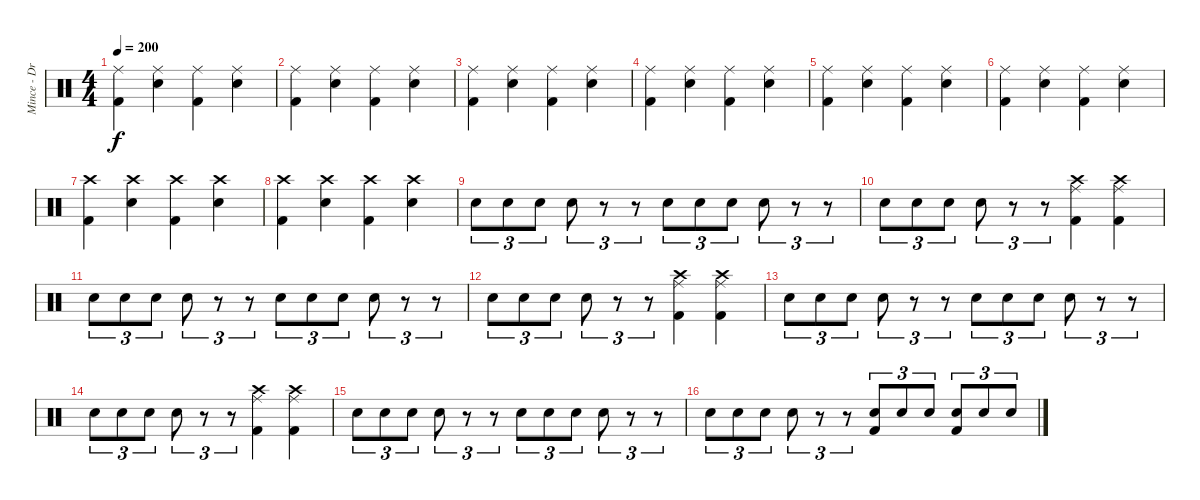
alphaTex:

\track ("Mince - Drums" "Mince - Dr") {instrument percussion}
\staff {score}
\articulation defaults
\ts (4 4)
\tempo 200
\clef neutral
\ks c
("Ride (middle)" "Kick (hit) 2").4{dy f} ("Ride (middle)" "Electric Snare (hit)").4 ("Ride (middle)" "Kick (hit) 2").4 ("Ride (middle)" "Electric Snare (hit)").4 |
("Ride (middle)" "Kick (hit) 2").4 ("Ride (middle)" "Electric Snare (hit)").4 ("Ride (middle)" "Kick (hit) 2").4 ("Ride (middle)" "Electric Snare (hit)").4 |
("Ride (middle)" "Kick (hit) 2").4 ("Ride (middle)" "Electric Snare (hit)").4 ("Ride (middle)" "Kick (hit) 2").4 ("Ride (middle)" "Electric Snare (hit)").4 |
("Ride (middle)" "Kick (hit) 2").4 ("Ride (middle)" "Electric Snare (hit)").4 ("Ride (middle)" "Kick (hit) 2").4 ("Ride (middle)" "Electric Snare (hit)").4 |
("Ride (middle)" "Kick (hit) 2").4 ("Ride (middle)" "Electric Snare (hit)").4 ("Ride (middle)" "Kick (hit) 2").4 ("Ride (middle)" "Electric Snare (hit)").4 |
("Ride (middle)" "Kick (hit) 2").4 ("Ride (middle)" "Electric Snare (hit)").4 ("Ride (middle)" "Kick (hit) 2").4 ("Ride (middle)" "Electric Snare (hit)").4 |
("Crash high (hit)" "Kick (hit) 2").4 ("Crash high (hit)" "Electric Snare (hit)").4 ("Crash high (hit)" "Kick (hit) 2").4 ("Crash high (hit)" "Electric Snare (hit)").4 |
("Crash high (hit)" "Kick (hit) 2").4 ("Crash high (hit)" "Electric Snare (hit)").4 ("Crash high (hit)" "Kick (hit) 2").4 ("Crash high (hit)" "Electric Snare (hit)").4 |
"Electric Snare (hit)".8{tu (3 2)} "Electric Snare (hit)".8{tu (3 2)} "Electric Snare (hit)".8{tu (3 2)} "Electric Snare (hit)".8{tu (3 2)} r.8{tu (3 2)} r.8{tu (3 2)} "Electric Snare (hit)".8{tu (3 2)} "Electric Snare (hit)".8{tu (3 2)} "Electric Snare (hit)".8{tu (3 2)} "Electric Snare (hit)".8{tu (3 2)} r.8{tu (3 2)} r.8{tu (3 2)} |
"Electric Snare (hit)".8{tu (3 2)} "Electric Snare (hit)".8{tu (3 2)} "Electric Snare (hit)".8{tu (3 2)} "Electric Snare (hit)".8{tu (3 2)} r.8{tu (3 2)} r.8{tu (3 2)} ("Crash high (hit)" "Ride (middle)" "Kick (hit) 2").4 ("Crash high (hit)" "Ride (middle)" "Kick (hit) 2").4 |
"Electric Snare (hit)".8{tu (3 2)} "Electric Snare (hit)".8{tu (3 2)} "Electric Snare (hit)".8{tu (3 2)} "Electric Snare (hit)".8{tu (3 2)} r.8{tu (3 2)} r.8{tu (3 2)} "Electric Snare (hit)".8{tu (3 2)} "Electric Snare (hit)".8{tu (3 2)} "Electric Snare (hit)".8{tu (3 2)} "Electric Snare (hit)".8{tu (3 2)} r.8{tu (3 2)} r.8{tu (3 2)} |
"Electric Snare (hit)".8{tu (3 2)} "Electric Snare (hit)".8{tu (3 2)} "Electric Snare (hit)".8{tu (3 2)} "Electric Snare (hit)".8{tu (3 2)} r.8{tu (3 2)} r.8{tu (3 2)} ("Crash high (hit)" "Ride (middle)" "Kick (hit) 2").4 ("Crash high (hit)" "Ride (middle)" "Kick (hit) 2").4 |
"Electric Snare (hit)".8{tu (3 2)} "Electric Snare (hit)".8{tu (3 2)} "Electric Snare (hit)".8{tu (3 2)} "Electric Snare (hit)".8{tu (3 2)} r.8{tu (3 2)} r.8{tu (3 2)} "Electric Snare (hit)".8{tu (3 2)} "Electric Snare (hit)".8{tu (3 2)} "Electric Snare (hit)".8{tu (3 2)} "Electric Snare (hit)".8{tu (3 2)} r.8{tu (3 2)} r.8{tu (3 2)} |
"Electric Snare (hit)".8{tu (3 2)} "Electric Snare (hit)".8{tu (3 2)} "Electric Snare (hit)".8{tu (3 2)} "Electric Snare (hit)".8{tu (3 2)} r.8{tu (3 2)} r.8{tu (3 2)} ("Crash high (hit)" "Ride (middle)" "Kick (hit) 2").4 ("Crash high (hit)" "Ride (middle)" "Kick (hit) 2").4 |
"Electric Snare (hit)".8{tu (3 2)} "Electric Snare (hit)".8{tu (3 2)} "Electric Snare (hit)".8{tu (3 2)} "Electric Snare (hit)".8{tu (3 2)} r.8{tu (3 2)} r.8{tu (3 2)} "Electric Snare (hit)".8{tu (3 2)} "Electric Snare (hit)".8{tu (3 2)} "Electric Snare (hit)".8{tu (3 2)} "Electric Snare (hit)".8{tu (3 2)} r.8{tu (3 2)} r.8{tu (3 2)} |
"Electric Snare (hit)".8{tu (3 2)} "Electric Snare (hit)".8{tu (3 2)} "Electric Snare (hit)".8{tu (3 2)} "Electric Snare (hit)".8{tu (3 2)} r.8{tu (3 2)} r.8{tu (3 2)} ("Electric Snare (hit)" "Kick (hit) 2").8{tu (3 2)} "Electric Snare (hit)".8{tu (3 2)} "Electric Snare (hit)".8{tu (3 2)} ("Electric Snare (hit)" "Kick (hit) 2").8{tu (3 2)} "Electric Snare (hit)".8{tu (3 2)} "Electric Snare (hit)".8{tu (3 2)}
